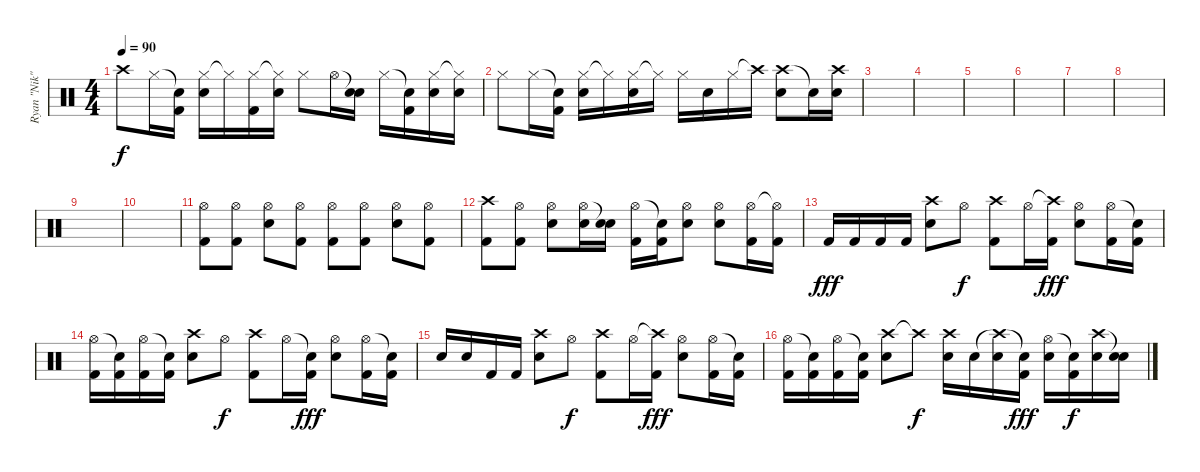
\track ("Ryan \"Nik\" Vikedal (drums)" "Ryan \"Nik\"") {instrument percussion}
\staff {score}
\articulation defaults
\ts (4 4)
\tempo 90
\clef neutral
\ks c "Crash high (hit)".8{dy f} "Hi-Hat (closed)".16
("Snare (hit)"{t} "Kick (hit) 2").16 ("Hi-Hat (closed)" "Electric Snare (hit)").16 "Hi-Hat (closed)"{t}.16 ("Hi-Hat (closed)" "Kick (hit) 2").16 ("Hi-Hat (closed)"{t} "Electric Snare (hit)").16 "Hi-Hat (closed)".8 "Hi-Hat (open)".16 ("Snare (hit)"{t} "Electric Snare (hit)").16 "Hi-Hat (closed)".16 ("Snare (hit)"{t} "Kick (hit) 2").16 ("Hi-Hat (closed)" "Electric Snare (hit)").16 ("Hi-Hat (closed)"{t} "Electric Snare (hit)").16 |
"Hi-Hat (closed)".8 "Hi-Hat (closed)".16 ("Snare (hit)"{t} "Kick (hit) 2").16 ("Hi-Hat (closed)" "Electric Snare (hit)").16 "Hi-Hat (closed)"{t}.16 ("Hi-Hat (closed)" "Electric Snare (hit)").16 "Hi-Hat (closed)"{t}.16 "Hi-Hat (closed)".16 "Electric Snare (hit)".16 "Hi-Hat (closed)".16 "Crash high (hit)"{t}.16 ("Crash high (hit)" "Electric Snare (hit)").8 "Snare (hit)"{t}.16 ("Crash high (hit)" "Electric Snare (hit)").16 |
|
|
|
|
|
|
|
|
("Hi-Hat (open)" "Kick (hit) 2").8 ("Hi-Hat (open)" "Kick (hit) 2").8 ("Hi-Hat (open)" "Electric Snare (hit)").8 ("Hi-Hat (open)" "Kick (hit) 2").8 ("Hi-Hat (open)" "Kick (hit) 2").8 ("Hi-Hat (open)" "Kick (hit) 2").8 ("Hi-Hat (open)" "Electric Snare (hit)").8 ("Hi-Hat (open)" "Kick (hit) 2").8 |
("Crash high (hit)" "Kick (hit) 2").8 ("Hi-Hat (open)" "Kick (hit) 2").8 ("Hi-Hat (open)" "Electric Snare (hit)").8 ("Hi-Hat (open)" "Electric Snare (hit)").16 ("Snare (hit)"{t} "Electric Snare (hit)").16 ("Hi-Hat (open)" "Kick (hit) 2").16 ("Snare (hit)"{t} "Kick (hit) 2").16 ("Hi-Hat (open)" "Electric Snare (hit)").8 ("Hi-Hat (open)" "Electric Snare (hit)").8 ("Hi-Hat (open)" "Kick (hit) 2").16 ("Hi-Hat (open)"{t} "Kick (hit) 2").16 |
"Kick (hit) 2".16{dy fff} "Kick (hit) 2".16 "Kick (hit) 2".16 "Kick (hit) 2".16 ("Crash high (hit)" "Electric Snare (hit)").8 "Hi-Hat (open)".8{dy f} ("Crash high (hit)" "Kick (hit) 2").8 "Hi-Hat (open)".16 ("Crash high (hit)"{t} "Kick (hit) 2").16{dy fff} ("Hi-Hat (open)" "Electric Snare (hit)").8 ("Hi-Hat (open)" "Kick (hit) 2").16 ("Snare (hit)"{t} "Kick (hit) 2").16 |
("Hi-Hat (open)" "Kick (hit) 2").16 ("Snare (hit)"{t} "Kick (hit) 2").16 ("Hi-Hat (open)" "Kick (hit) 2").16 ("Snare (hit)"{t} "Kick (hit) 2").16 ("Crash high (hit)" "Electric Snare (hit)").8 "Hi-Hat (open)".8{dy f} ("Crash high (hit)" "Kick (hit) 2").8 "Hi-Hat (open)".16 ("Snare (hit)"{t} "Kick (hit) 2").16{dy fff} ("Hi-Hat (open)" "Electric Snare (hit)").8 ("Hi-Hat (open)" "Kick (hit) 2").16 ("Snare (hit)"{t} "Kick (hit) 2").16 |
"Electric Snare (hit)".16 "Electric Snare (hit)".16 "Kick (hit) 2".16 "Kick (hit) 2".16 ("Crash high (hit)" "Electric Snare (hit)").8 "Hi-Hat (open)".8{dy f} ("Crash high (hit)" "Kick (hit) 2").8 "Hi-Hat (open)".16 ("Crash high (hit)"{t} "Kick (hit) 2").16{dy fff} ("Hi-Hat (open)" "Electric Snare (hit)").8 ("Hi-Hat (open)" "Kick (hit) 2").16 ("Snare (hit)"{t} "Kick (hit) 2").16 |
("Hi-Hat (open)" "Kick (hit) 2").16 ("Snare (hit)"{t} "Kick (hit) 2").16 ("Hi-Hat (open)" "Kick (hit) 2").16 ("Snare (hit)"{t} "Kick (hit) 2").16 ("Crash high (hit)" "Electric Snare (hit)").8 "Crash high (hit)"{t}.8{dy f} ("Crash high (hit)" "Electric Snare (hit)").16 "Electric Snare (hit)".16 ("Crash high (hit)"{t} "Electric Snare (hit)").16 ("Snare (hit)"{t} "Kick (hit) 2").16{dy fff} ("Hi-Hat (open)" "Electric Snare (hit)").16 ("Snare (hit)"{t} "Kick (hit) 2").16{dy f} ("Crash high (hit)" "Electric Snare (hit)").16 ("Snare (hit)"{t} "Electric Snare (hit)").16
